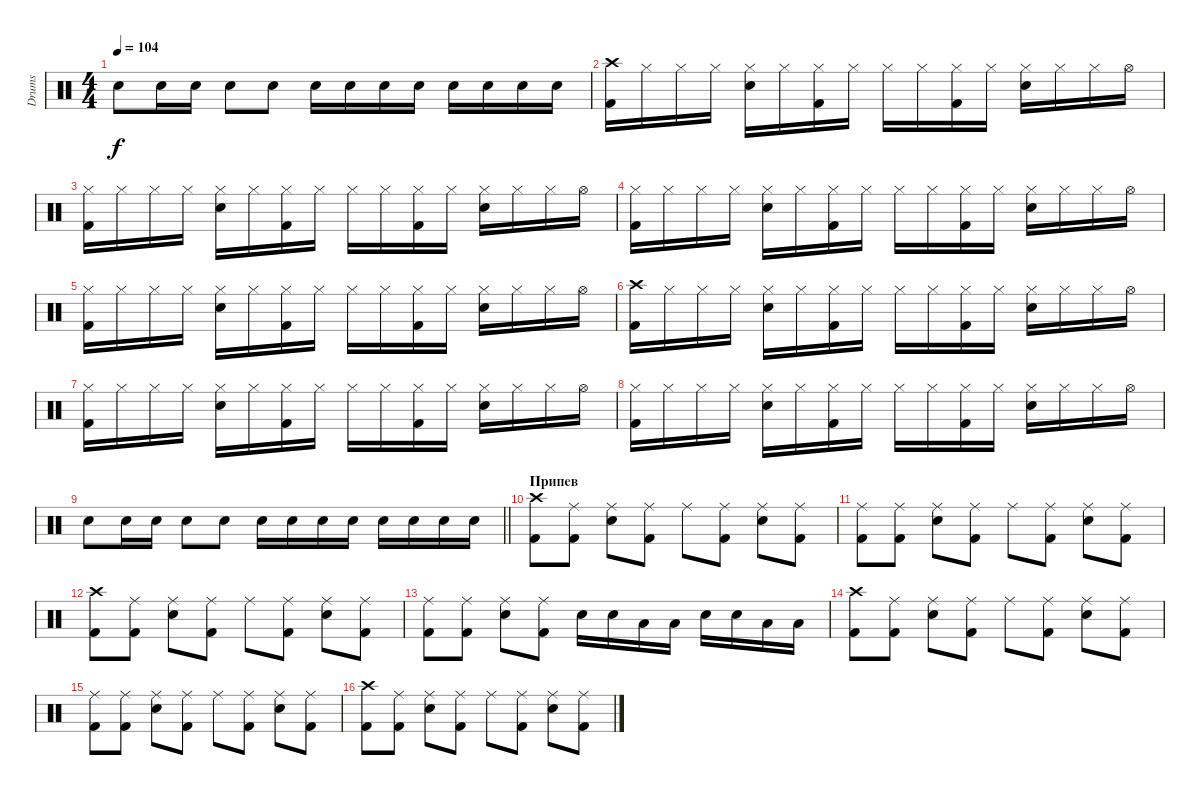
\track ("Drums" "Drums") {instrument percussion}
\staff {score}
\articulation defaults
\ts (4 4)
\tempo 104
\clef neutral
\ks c "Snare (hit) 2".8{dy f} "Snare (hit) 2".16 "Snare (hit) 2".16 "Snare (hit) 2".8 "Snare (hit) 2".8 "Snare (hit) 2".16 "Snare (hit) 2".16 "Snare (hit) 2".16 "Snare (hit) 2".16 "Snare (hit) 2".16 "Snare (hit) 2".16 "Snare (hit) 2".16 "Snare (hit) 2".16
|
("Crash high (hit)" "Kick (hit) 2").16 "Hi-Hat (closed)".16 "Hi-Hat (closed)".16 "Hi-Hat (closed)".16 ("Hi-Hat (closed)" "Snare (hit) 2").16 "Hi-Hat (closed)".16 ("Hi-Hat (closed)" "Kick (hit) 2").16 "Hi-Hat (closed)".16 "Hi-Hat (closed)".16 "Hi-Hat (closed)".16 ("Hi-Hat (closed)" "Kick (hit) 2").16 "Hi-Hat (closed)".16 ("Hi-Hat (closed)" "Snare (hit) 2").16 "Hi-Hat (closed)".16 "Hi-Hat (closed)".16 "Hi-Hat (open)".16 |
("Hi-Hat (closed)" "Kick (hit) 2").16 "Hi-Hat (closed)".16 "Hi-Hat (closed)".16 "Hi-Hat (closed)".16 ("Hi-Hat (closed)" "Snare (hit) 2").16 "Hi-Hat (closed)".16 ("Hi-Hat (closed)" "Kick (hit) 2").16 "Hi-Hat (closed)".16 "Hi-Hat (closed)".16 "Hi-Hat (closed)".16 ("Hi-Hat (closed)" "Kick (hit) 2").16 "Hi-Hat (closed)".16 ("Hi-Hat (closed)" "Snare (hit) 2").16 "Hi-Hat (closed)".16 "Hi-Hat (closed)".16 "Hi-Hat (open)".16 |
("Hi-Hat (closed)" "Kick (hit) 2").16 "Hi-Hat (closed)".16 "Hi-Hat (closed)".16 "Hi-Hat (closed)".16 ("Hi-Hat (closed)" "Snare (hit) 2").16 "Hi-Hat (closed)".16 ("Hi-Hat (closed)" "Kick (hit) 2").16 "Hi-Hat (closed)".16 "Hi-Hat (closed)".16 "Hi-Hat (closed)".16 ("Hi-Hat (closed)" "Kick (hit) 2").16 "Hi-Hat (closed)".16 ("Hi-Hat (closed)" "Snare (hit) 2").16 "Hi-Hat (closed)".16 "Hi-Hat (closed)".16 "Hi-Hat (open)".16 |
("Hi-Hat (closed)" "Kick (hit) 2").16 "Hi-Hat (closed)".16 "Hi-Hat (closed)".16 "Hi-Hat (closed)".16 ("Hi-Hat (closed)" "Snare (hit) 2").16 "Hi-Hat (closed)".16 ("Hi-Hat (closed)" "Kick (hit) 2").16 "Hi-Hat (closed)".16 "Hi-Hat (closed)".16 "Hi-Hat (closed)".16 ("Hi-Hat (closed)" "Kick (hit) 2").16 "Hi-Hat (closed)".16 ("Hi-Hat (closed)" "Snare (hit) 2").16 "Hi-Hat (closed)".16 "Hi-Hat (closed)".16 "Hi-Hat (open)".16 |
("Crash high (hit)" "Kick (hit) 2").16 "Hi-Hat (closed)".16 "Hi-Hat (closed)".16 "Hi-Hat (closed)".16 ("Hi-Hat (closed)" "Snare (hit) 2").16 "Hi-Hat (closed)".16 ("Hi-Hat (closed)" "Kick (hit) 2").16 "Hi-Hat (closed)".16 "Hi-Hat (closed)".16 "Hi-Hat (closed)".16 ("Hi-Hat (closed)" "Kick (hit) 2").16 "Hi-Hat (closed)".16 ("Hi-Hat (closed)" "Snare (hit) 2").16 "Hi-Hat (closed)".16 "Hi-Hat (closed)".16 "Hi-Hat (open)".16 |
("Hi-Hat (closed)" "Kick (hit) 2").16 "Hi-Hat (closed)".16 "Hi-Hat (closed)".16 "Hi-Hat (closed)".16 ("Hi-Hat (closed)" "Snare (hit) 2").16 "Hi-Hat (closed)".16 ("Hi-Hat (closed)" "Kick (hit) 2").16 "Hi-Hat (closed)".16 "Hi-Hat (closed)".16 "Hi-Hat (closed)".16 ("Hi-Hat (closed)" "Kick (hit) 2").16 "Hi-Hat (closed)".16 ("Hi-Hat (closed)" "Snare (hit) 2").16 "Hi-Hat (closed)".16 "Hi-Hat (closed)".16 "Hi-Hat (open)".16 |
("Hi-Hat (closed)" "Kick (hit) 2").16 "Hi-Hat (closed)".16 "Hi-Hat (closed)".16 "Hi-Hat (closed)".16 ("Hi-Hat (closed)" "Snare (hit) 2").16 "Hi-Hat (closed)".16 ("Hi-Hat (closed)" "Kick (hit) 2").16 "Hi-Hat (closed)".16 "Hi-Hat (closed)".16 "Hi-Hat (closed)".16 ("Hi-Hat (closed)" "Kick (hit) 2").16 "Hi-Hat (closed)".16 ("Hi-Hat (closed)" "Snare (hit) 2").16 "Hi-Hat (closed)".16 "Hi-Hat (closed)".16 "Hi-Hat (open)".16 |
\barLineRight lightlight "Snare (hit) 2".8 "Snare (hit) 2".16 "Snare (hit) 2".16 "Snare (hit) 2".8 "Snare (hit) 2".8 "Snare (hit) 2".16 "Snare (hit) 2".16 "Snare (hit) 2".16 "Snare (hit) 2".16 "Snare (hit) 2".16 "Snare (hit) 2".16 "Snare (hit) 2".16 "Snare (hit) 2".16
|
\section ("" "Припев")
("Crash high (hit)" "Kick (hit) 2").8 ("Ride (middle)" "Kick (hit) 2").8 ("Ride (middle)" "Snare (hit) 2").8 ("Ride (middle)" "Kick (hit) 2").8 "Ride (middle)".8 ("Ride (middle)" "Kick (hit) 2").8 ("Ride (middle)" "Snare (hit) 2").8 ("Ride (middle)" "Kick (hit) 2").8 |
("Ride (middle)" "Kick (hit) 2").8 ("Ride (middle)" "Kick (hit) 2").8 ("Ride (middle)" "Snare (hit) 2").8 ("Ride (middle)" "Kick (hit) 2").8 "Ride (middle)".8 ("Ride (middle)" "Kick (hit) 2").8 ("Ride (middle)" "Snare (hit) 2").8 ("Ride (middle)" "Kick (hit) 2").8 |
("Crash high (hit)" "Kick (hit) 2").8 ("Ride (middle)" "Kick (hit) 2").8 ("Ride (middle)" "Snare (hit) 2").8 ("Ride (middle)" "Kick (hit) 2").8 "Ride (middle)".8 ("Ride (middle)" "Kick (hit) 2").8 ("Ride (middle)" "Snare (hit) 2").8 ("Ride (middle)" "Kick (hit) 2").8 |
("Ride (middle)" "Kick (hit) 2").8 ("Ride (middle)" "Kick (hit) 2").8 ("Ride (middle)" "Snare (hit) 2").8 ("Ride (middle)" "Kick (hit) 2").8 "Snare (hit) 2".16 "Snare (hit) 2".16 "Low Tom (hit)".16 "Low Tom (hit)".16 "Snare (hit) 2".16 "Snare (hit) 2".16 "Low Tom (hit)".16 "Low Tom (hit)".16 |
("Crash high (hit)" "Kick (hit) 2").8 ("Ride (middle)" "Kick (hit) 2").8 ("Ride (middle)" "Snare (hit) 2").8 ("Ride (middle)" "Kick (hit) 2").8 "Ride (middle)".8 ("Ride (middle)" "Kick (hit) 2").8 ("Ride (middle)" "Snare (hit) 2").8 ("Ride (middle)" "Kick (hit) 2").8 |
("Ride (middle)" "Kick (hit) 2").8 ("Ride (middle)" "Kick (hit) 2").8 ("Ride (middle)" "Snare (hit) 2").8 ("Ride (middle)" "Kick (hit) 2").8 "Ride (middle)".8 ("Ride (middle)" "Kick (hit) 2").8 ("Ride (middle)" "Snare (hit) 2").8 ("Ride (middle)" "Kick (hit) 2").8 |
("Crash high (hit)" "Kick (hit) 2").8 ("Ride (middle)" "Kick (hit) 2").8 ("Ride (middle)" "Snare (hit) 2").8 ("Ride (middle)" "Kick (hit) 2").8 "Ride (middle)".8 ("Ride (middle)" "Kick (hit) 2").8 ("Ride (middle)" "Snare (hit) 2").8 ("Ride (middle)" "Kick (hit) 2").8
